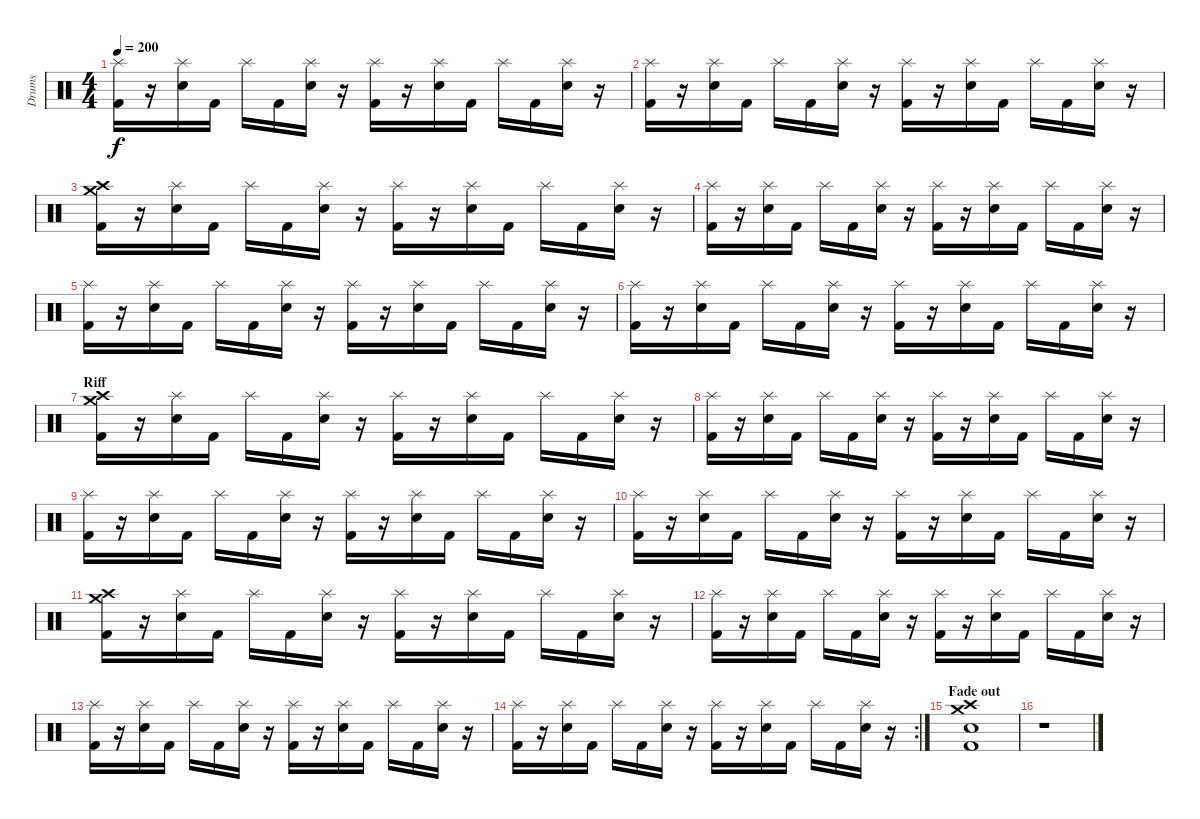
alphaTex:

\track ("Drums" "Drums") {instrument percussion}
\staff {score}
\articulation defaults
\ts (4 4)
\tempo 200
\clef neutral
\ks c
("Splash (hit)" "Kick (hit) 2").16{dy f} r.16 ("Splash (hit)" "Snare (hit) 2").16 "Kick (hit) 2".16 "Splash (hit)".16 "Kick (hit) 2".16 ("Splash (hit)" "Snare (hit) 2").16 r.16 ("Splash (hit)" "Kick (hit) 2").16 r.16 ("Splash (hit)" "Snare (hit) 2").16 "Kick (hit) 2".16 "Splash (hit)".16 "Kick (hit) 2".16 ("Splash (hit)" "Snare (hit) 2").16 r.16 |
("Splash (hit)" "Kick (hit) 2").16 r.16 ("Splash (hit)" "Snare (hit) 2").16 "Kick (hit) 2".16 "Splash (hit)".16 "Kick (hit) 2".16 ("Splash (hit)" "Snare (hit) 2").16 r.16 ("Splash (hit)" "Kick (hit) 2").16 r.16 ("Splash (hit)" "Snare (hit) 2").16 "Kick (hit) 2".16 "Splash (hit)".16 "Kick (hit) 2".16 ("Splash (hit)" "Snare (hit) 2").16 r.16 |
("Crash medium (hit)" "Crash high (hit)" "Kick (hit) 2").16 r.16 ("Splash (hit)" "Snare (hit) 2").16 "Kick (hit) 2".16 "Splash (hit)".16 "Kick (hit) 2".16 ("Splash (hit)" "Snare (hit) 2").16 r.16 ("Splash (hit)" "Kick (hit) 2").16 r.16 ("Splash (hit)" "Snare (hit) 2").16 "Kick (hit) 2".16 "Splash (hit)".16 "Kick (hit) 2".16 ("Splash (hit)" "Snare (hit) 2").16 r.16 |
("Splash (hit)" "Kick (hit) 2").16 r.16 ("Splash (hit)" "Snare (hit) 2").16 "Kick (hit) 2".16 "Splash (hit)".16 "Kick (hit) 2".16 ("Splash (hit)" "Snare (hit) 2").16 r.16 ("Splash (hit)" "Kick (hit) 2").16 r.16 ("Splash (hit)" "Snare (hit) 2").16 "Kick (hit) 2".16 "Splash (hit)".16 "Kick (hit) 2".16 ("Splash (hit)" "Snare (hit) 2").16 r.16 |
("Splash (hit)" "Kick (hit) 2").16 r.16 ("Splash (hit)" "Snare (hit) 2").16 "Kick (hit) 2".16 "Splash (hit)".16 "Kick (hit) 2".16 ("Splash (hit)" "Snare (hit) 2").16 r.16 ("Splash (hit)" "Kick (hit) 2").16 r.16 ("Splash (hit)" "Snare (hit) 2").16 "Kick (hit) 2".16 "Splash (hit)".16 "Kick (hit) 2".16 ("Splash (hit)" "Snare (hit) 2").16 r.16 |
("Splash (hit)" "Kick (hit) 2").16 r.16 ("Splash (hit)" "Snare (hit) 2").16 "Kick (hit) 2".16 "Splash (hit)".16 "Kick (hit) 2".16 ("Splash (hit)" "Snare (hit) 2").16 r.16 ("Splash (hit)" "Kick (hit) 2").16 r.16 ("Splash (hit)" "Snare (hit) 2").16 "Kick (hit) 2".16 "Splash (hit)".16 "Kick (hit) 2".16 ("Splash (hit)" "Snare (hit) 2").16 r.16 |
\section ("" "Riff")
("Crash medium (hit)" "Crash high (hit)" "Kick (hit) 2").16 r.16 ("Splash (hit)" "Snare (hit) 2").16 "Kick (hit) 2".16 "Splash (hit)".16 "Kick (hit) 2".16 ("Splash (hit)" "Snare (hit) 2").16 r.16 ("Splash (hit)" "Kick (hit) 2").16 r.16 ("Splash (hit)" "Snare (hit) 2").16 "Kick (hit) 2".16 "Splash (hit)".16 "Kick (hit) 2".16 ("Splash (hit)" "Snare (hit) 2").16 r.16 |
("Splash (hit)" "Kick (hit) 2").16 r.16 ("Splash (hit)" "Snare (hit) 2").16 "Kick (hit) 2".16 "Splash (hit)".16 "Kick (hit) 2".16 ("Splash (hit)" "Snare (hit) 2").16 r.16 ("Splash (hit)" "Kick (hit) 2").16 r.16 ("Splash (hit)" "Snare (hit) 2").16 "Kick (hit) 2".16 "Splash (hit)".16 "Kick (hit) 2".16 ("Splash (hit)" "Snare (hit) 2").16 r.16 |
("Splash (hit)" "Kick (hit) 2").16 r.16 ("Splash (hit)" "Snare (hit) 2").16 "Kick (hit) 2".16 "Splash (hit)".16 "Kick (hit) 2".16 ("Splash (hit)" "Snare (hit) 2").16 r.16 ("Splash (hit)" "Kick (hit) 2").16 r.16 ("Splash (hit)" "Snare (hit) 2").16 "Kick (hit) 2".16 "Splash (hit)".16 "Kick (hit) 2".16 ("Splash (hit)" "Snare (hit) 2").16 r.16 |
("Splash (hit)" "Kick (hit) 2").16 r.16 ("Splash (hit)" "Snare (hit) 2").16 "Kick (hit) 2".16 "Splash (hit)".16 "Kick (hit) 2".16 ("Splash (hit)" "Snare (hit) 2").16 r.16 ("Splash (hit)" "Kick (hit) 2").16 r.16 ("Splash (hit)" "Snare (hit) 2").16 "Kick (hit) 2".16 "Splash (hit)".16 "Kick (hit) 2".16 ("Splash (hit)" "Snare (hit) 2").16 r.16 |
("Crash medium (hit)" "Crash high (hit)" "Kick (hit) 2").16 r.16 ("Splash (hit)" "Snare (hit) 2").16 "Kick (hit) 2".16 "Splash (hit)".16 "Kick (hit) 2".16 ("Splash (hit)" "Snare (hit) 2").16 r.16 ("Splash (hit)" "Kick (hit) 2").16 r.16 ("Splash (hit)" "Snare (hit) 2").16 "Kick (hit) 2".16 "Splash (hit)".16 "Kick (hit) 2".16 ("Splash (hit)" "Snare (hit) 2").16 r.16 |
("Splash (hit)" "Kick (hit) 2").16 r.16 ("Splash (hit)" "Snare (hit) 2").16 "Kick (hit) 2".16 "Splash (hit)".16 "Kick (hit) 2".16 ("Splash (hit)" "Snare (hit) 2").16 r.16 ("Splash (hit)" "Kick (hit) 2").16 r.16 ("Splash (hit)" "Snare (hit) 2").16 "Kick (hit) 2".16 "Splash (hit)".16 "Kick (hit) 2".16 ("Splash (hit)" "Snare (hit) 2").16 r.16 |
("Splash (hit)" "Kick (hit) 2").16 r.16 ("Splash (hit)" "Snare (hit) 2").16 "Kick (hit) 2".16 "Splash (hit)".16 "Kick (hit) 2".16 ("Splash (hit)" "Snare (hit) 2").16 r.16 ("Splash (hit)" "Kick (hit) 2").16 r.16 ("Splash (hit)" "Snare (hit) 2").16 "Kick (hit) 2".16 "Splash (hit)".16 "Kick (hit) 2".16 ("Splash (hit)" "Snare (hit) 2").16 r.16 |
\rc 2
("Splash (hit)" "Kick (hit) 2").16 r.16 ("Splash (hit)" "Snare (hit) 2").16 "Kick (hit) 2".16 "Splash (hit)".16 "Kick (hit) 2".16 ("Splash (hit)" "Snare (hit) 2").16 r.16 ("Splash (hit)" "Kick (hit) 2").16 r.16 ("Splash (hit)" "Snare (hit) 2").16 "Kick (hit) 2".16 "Splash (hit)".16 "Kick (hit) 2".16 ("Splash (hit)" "Snare (hit) 2").16 r.16 |
\section ("" "Fade out")
("Crash medium (hit)" "Crash high (hit)" "Snare (hit) 2" "Kick (hit) 2").1 |
r.1
